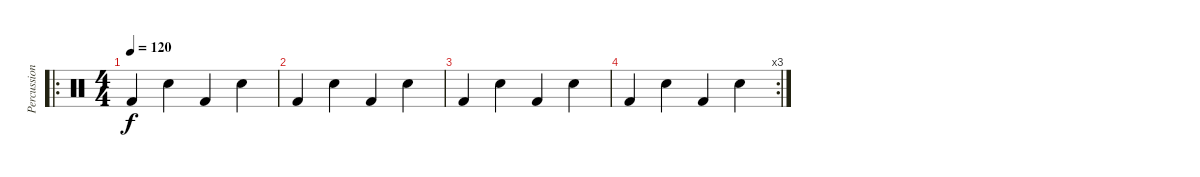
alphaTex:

\track ("Percussion" "Percussion") {instrument percussion}
\staff {score}
\articulation defaults
\ro
\ts (4 4)
\tempo 120
\clef neutral
\ks c "Kick (hit) 2".4{dy f} "Snare (hit) 2".4 "Kick (hit) 2".4 "Snare (hit) 2".4
|
"Kick (hit) 2".4 "Snare (hit) 2".4 "Kick (hit) 2".4 "Snare (hit) 2".4 |
"Kick (hit) 2".4 "Snare (hit) 2".4 "Kick (hit) 2".4 "Snare (hit) 2".4 |
\rc 3 "Kick (hit) 2".4 "Snare (hit) 2".4 "Kick (hit) 2".4 "Snare (hit) 2".4
